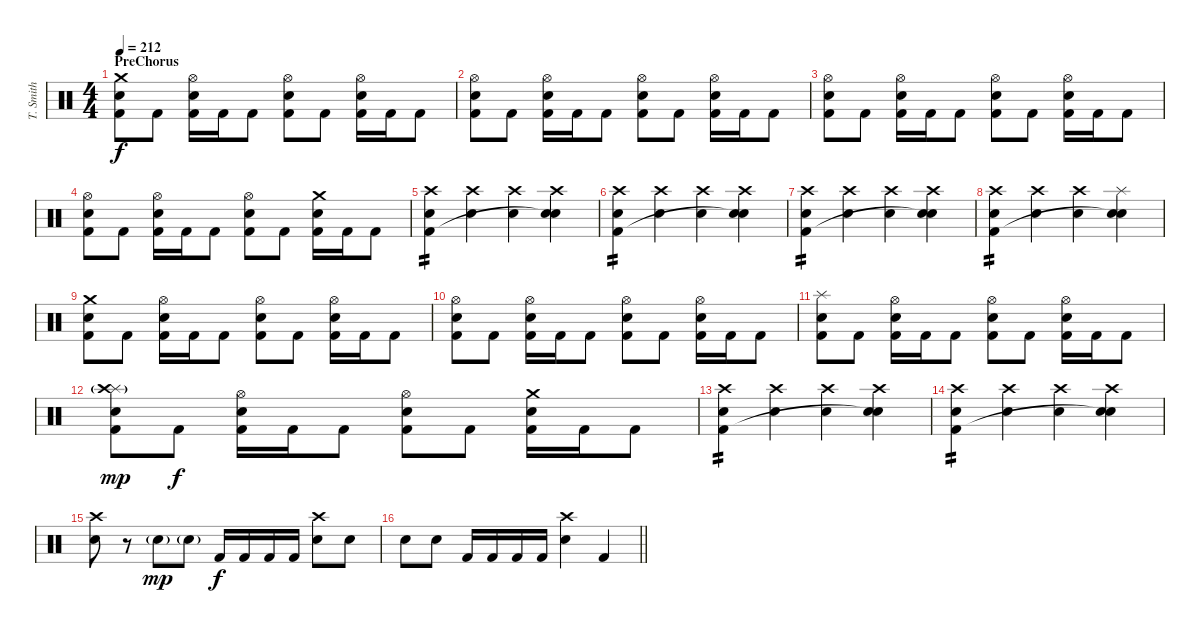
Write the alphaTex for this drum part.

\track ("T. Smith" "T. Smith") {instrument percussion}
\staff {score}
\articulation defaults
\ts (4 4)
\section ("" "PreChorus")
\tempo 212
\clef neutral
\ks c
("Crash medium (hit)" "Electric Snare (hit)" "Kick (hit) 2").8{dy f} "Kick (hit) 2".8 ("Hi-Hat (open)" "Electric Snare (hit)" "Kick (hit) 2").16 "Kick (hit) 2".16 "Kick (hit) 2".8 ("Hi-Hat (open)" "Electric Snare (hit)" "Kick (hit) 2").8 "Kick (hit) 2".8 ("Hi-Hat (open)" "Electric Snare (hit)" "Kick (hit) 2").16 "Kick (hit) 2".16 "Kick (hit) 2".8 |
("Hi-Hat (open)" "Electric Snare (hit)" "Kick (hit) 2").8 "Kick (hit) 2".8 ("Hi-Hat (open)" "Electric Snare (hit)" "Kick (hit) 2").16 "Kick (hit) 2".16 "Kick (hit) 2".8 ("Hi-Hat (open)" "Electric Snare (hit)" "Kick (hit) 2").8 "Kick (hit) 2".8 ("Hi-Hat (open)" "Electric Snare (hit)" "Kick (hit) 2").16 "Kick (hit) 2".16 "Kick (hit) 2".8 |
("Hi-Hat (open)" "Electric Snare (hit)" "Kick (hit) 2").8 "Kick (hit) 2".8 ("Hi-Hat (open)" "Electric Snare (hit)" "Kick (hit) 2").16 "Kick (hit) 2".16 "Kick (hit) 2".8 ("Hi-Hat (open)" "Electric Snare (hit)" "Kick (hit) 2").8 "Kick (hit) 2".8 ("Hi-Hat (open)" "Electric Snare (hit)" "Kick (hit) 2").16 "Kick (hit) 2".16 "Kick (hit) 2".8 |
("Hi-Hat (open)" "Electric Snare (hit)" "Kick (hit) 2").8 "Kick (hit) 2".8 ("Hi-Hat (open)" "Electric Snare (hit)" "Kick (hit) 2").16 "Kick (hit) 2".16 "Kick (hit) 2".8 ("Hi-Hat (open)" "Electric Snare (hit)" "Kick (hit) 2").8 "Kick (hit) 2".8 ("Crash medium (hit)" "Electric Snare (hit)" "Kick (hit) 2").16 "Kick (hit) 2".16 "Kick (hit) 2".8 |
("Crash high (hit)" "Electric Snare (hit)" "Kick (hit) 2").4{tp 2} ("Crash high (hit)" "Electric Snare (hit)").4 ("Crash high (hit)" "Electric Snare (hit)").4 ("Crash high (hit)" "Electric Snare (hit)" "Snare (hit)"{t}).4 |
("Crash high (hit)" "Electric Snare (hit)" "Kick (hit) 2").4{tp 2} ("Crash high (hit)" "Electric Snare (hit)").4 ("Crash high (hit)" "Electric Snare (hit)").4 ("Crash high (hit)" "Electric Snare (hit)" "Snare (hit)"{t}).4 |
("Crash high (hit)" "Electric Snare (hit)" "Kick (hit) 2").4{tp 2} ("Crash high (hit)" "Electric Snare (hit)").4 ("Crash high (hit)" "Electric Snare (hit)").4 ("Crash high (hit)" "Electric Snare (hit)" "Snare (hit)"{t}).4 |
("Crash high (hit)" "Electric Snare (hit)" "Kick (hit) 2").4{tp 2} ("Crash high (hit)" "Electric Snare (hit)").4 ("Crash high (hit)" "Electric Snare (hit)").4 ("Splash (hit)" "Electric Snare (hit)" "Snare (hit)"{t}).4 |
("Crash medium (hit)" "Electric Snare (hit)" "Kick (hit) 2").8 "Kick (hit) 2".8 ("Hi-Hat (open)" "Electric Snare (hit)" "Kick (hit) 2").16 "Kick (hit) 2".16 "Kick (hit) 2".8 ("Hi-Hat (open)" "Electric Snare (hit)" "Kick (hit) 2").8 "Kick (hit) 2".8 ("Hi-Hat (open)" "Electric Snare (hit)" "Kick (hit) 2").16 "Kick (hit) 2".16 "Kick (hit) 2".8 |
("Hi-Hat (open)" "Electric Snare (hit)" "Kick (hit) 2").8 "Kick (hit) 2".8 ("Hi-Hat (open)" "Electric Snare (hit)" "Kick (hit) 2").16 "Kick (hit) 2".16 "Kick (hit) 2".8 ("Hi-Hat (open)" "Electric Snare (hit)" "Kick (hit) 2").8 "Kick (hit) 2".8 ("Hi-Hat (open)" "Electric Snare (hit)" "Kick (hit) 2").16 "Kick (hit) 2".16 "Kick (hit) 2".8 |
("Splash (hit)" "Electric Snare (hit)" "Kick (hit) 2").8 "Kick (hit) 2".8 ("Hi-Hat (open)" "Electric Snare (hit)" "Kick (hit) 2").16 "Kick (hit) 2".16 "Kick (hit) 2".8 ("Hi-Hat (open)" "Electric Snare (hit)" "Kick (hit) 2").8 "Kick (hit) 2".8 ("Hi-Hat (open)" "Electric Snare (hit)" "Kick (hit) 2").16 "Kick (hit) 2".16 "Kick (hit) 2".8 |
("Splash (hit)" "Crash high (hit)"{g} "Electric Snare (hit)" "Kick (hit) 2").8{dy mp} "Kick (hit) 2".8{dy f} ("Hi-Hat (open)" "Electric Snare (hit)" "Kick (hit) 2").16 "Kick (hit) 2".16 "Kick (hit) 2".8 ("Hi-Hat (open)" "Electric Snare (hit)" "Kick (hit) 2").8 "Kick (hit) 2".8 ("Crash medium (hit)" "Electric Snare (hit)" "Kick (hit) 2").16 "Kick (hit) 2".16 "Kick (hit) 2".8 |
("Crash high (hit)" "Electric Snare (hit)" "Kick (hit) 2").4{tp 2} ("Crash high (hit)" "Electric Snare (hit)").4 ("Crash high (hit)" "Electric Snare (hit)").4 ("Crash high (hit)" "Electric Snare (hit)" "Snare (hit)"{t}).4 |
("Crash high (hit)" "Electric Snare (hit)" "Kick (hit) 2").4{tp 2} ("Crash high (hit)" "Electric Snare (hit)").4 ("Crash high (hit)" "Electric Snare (hit)").4 ("Crash high (hit)" "Electric Snare (hit)" "Snare (hit)"{t}).4 |
("Crash high (hit)" "Electric Snare (hit)").8 r.8 "Electric Snare (hit)"{g}.8{dy mp} "Electric Snare (hit)"{g}.8 "Kick (hit) 2".16{dy f} "Kick (hit) 2".16 "Kick (hit) 2".16 "Kick (hit) 2".16 ("Crash high (hit)" "Electric Snare (hit)").8 "Electric Snare (hit)".8 |
\barLineRight lightlight "Electric Snare (hit)".8 "Electric Snare (hit)".8 "Kick (hit) 2".16 "Kick (hit) 2".16 "Kick (hit) 2".16 "Kick (hit) 2".16
("Crash high (hit)" "Electric Snare (hit)").4 "Kick (hit) 2".4
